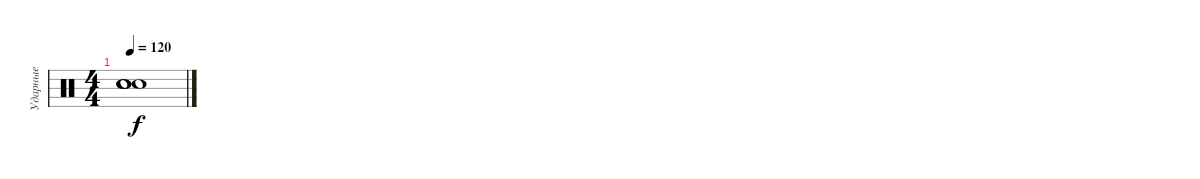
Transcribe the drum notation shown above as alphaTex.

\track ("Ударные" "Ударные") {instrument percussion}
\staff {score}
\articulation defaults
\ts (4 4)
\tempo 120
\clef neutral
\ks c
("Snare (hit)"{t} "Snare (hit)"{t} "Snare (hit)" "Snare (hit)").1{dy f}
